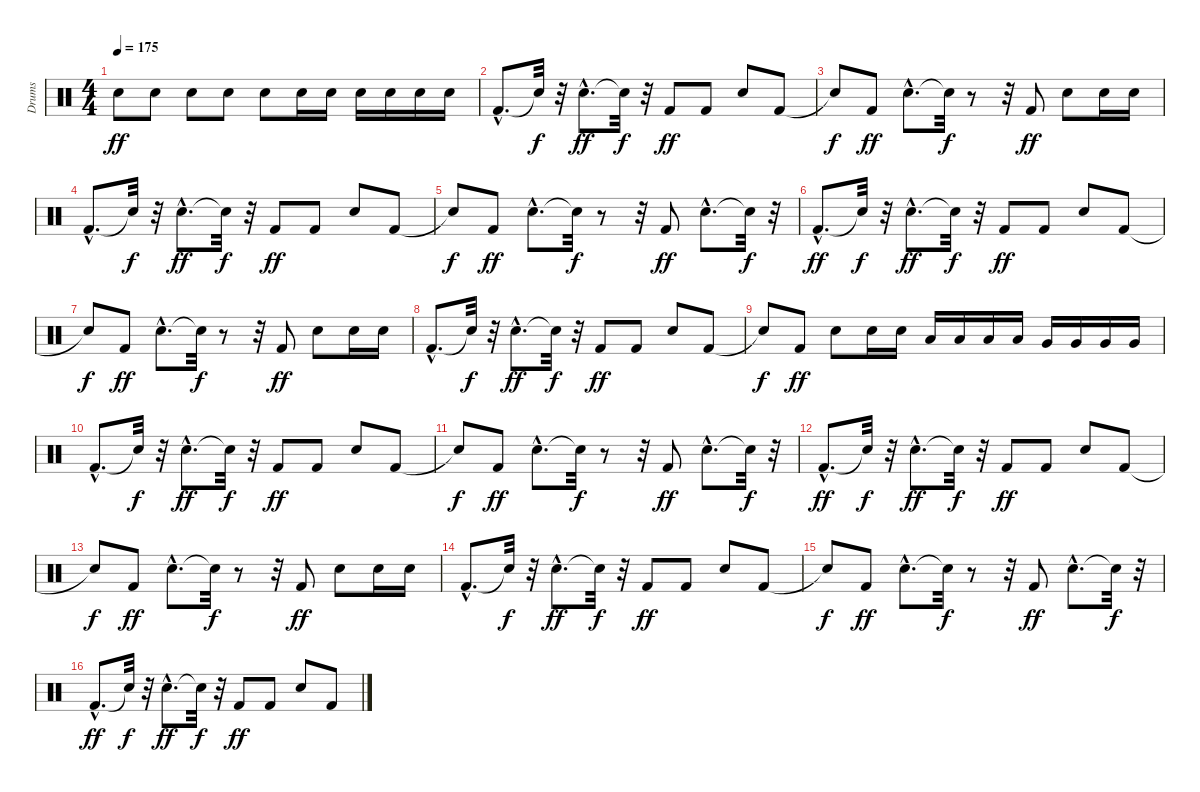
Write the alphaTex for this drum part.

\track ("Drums" "Drums") {instrument percussion}
\staff {score}
\articulation defaults
\ts (4 4)
\tempo 175
\clef neutral
\ks c "Electric Snare (hit)".8{dy ff} "Electric Snare (hit)".8 "Electric Snare (hit)".8 "Electric Snare (hit)".8 "Electric Snare (hit)".8 "Electric Snare (hit)".16 "Electric Snare (hit)".16 "Electric Snare (hit)".16 "Electric Snare (hit)".16 "Electric Snare (hit)".16 "Electric Snare (hit)".16
|
"Kick (hit) 2"{hac}.8{d} "Snare (hit)"{t}.32{dy f} r.32 "Electric Snare (hit)"{hac}.8{d dy ff} "Snare (hit)"{t}.32{dy f} r.32 "Kick (hit) 2".8{dy ff} "Kick (hit) 2".8 "Electric Snare (hit)".8 "Kick (hit) 2".8 |
"Snare (hit)"{t}.8{dy f} "Kick (hit) 2".8{dy ff} "Electric Snare (hit)"{hac}.8{d} "Snare (hit)"{t}.32{dy f} r.8 r.32 "Kick (hit) 2".8{dy ff} "Electric Snare (hit)".8 "Electric Snare (hit)".16 "Electric Snare (hit)".16 |
"Kick (hit) 2"{hac}.8{d} "Snare (hit)"{t}.32{dy f} r.32 "Electric Snare (hit)"{hac}.8{d dy ff} "Snare (hit)"{t}.32{dy f} r.32 "Kick (hit) 2".8{dy ff} "Kick (hit) 2".8 "Electric Snare (hit)".8 "Kick (hit) 2".8 |
"Snare (hit)"{t}.8{dy f} "Kick (hit) 2".8{dy ff} "Electric Snare (hit)"{hac}.8{d} "Snare (hit)"{t}.32{dy f} r.8 r.32 "Kick (hit) 2".8{dy ff} "Electric Snare (hit)"{hac}.8{d} "Snare (hit)"{t}.32{dy f} r.32 |
"Kick (hit) 2"{hac}.8{d dy ff} "Snare (hit)"{t}.32{dy f} r.32 "Electric Snare (hit)"{hac}.8{d dy ff} "Snare (hit)"{t}.32{dy f} r.32 "Kick (hit) 2".8{dy ff} "Kick (hit) 2".8 "Electric Snare (hit)".8 "Kick (hit) 2".8 |
"Snare (hit)"{t}.8{dy f} "Kick (hit) 2".8{dy ff} "Electric Snare (hit)"{hac}.8{d} "Snare (hit)"{t}.32{dy f} r.8 r.32 "Kick (hit) 2".8{dy ff} "Electric Snare (hit)".8 "Electric Snare (hit)".16 "Electric Snare (hit)".16 |
"Kick (hit) 2"{hac}.8{d} "Snare (hit)"{t}.32{dy f} r.32 "Electric Snare (hit)"{hac}.8{d dy ff} "Snare (hit)"{t}.32{dy f} r.32 "Kick (hit) 2".8{dy ff} "Kick (hit) 2".8 "Electric Snare (hit)".8 "Kick (hit) 2".8 |
"Snare (hit)"{t}.8{dy f} "Kick (hit) 2".8{dy ff} "Electric Snare (hit)".8 "Electric Snare (hit)".16 "Electric Snare (hit)".16 "Low Tom (hit)".16 "Low Tom (hit)".16 "Low Tom (hit)".16 "Low Tom (hit)".16 "Very Low Tom (hit)".16 "Very Low Tom (hit)".16 "Very Low Tom (hit)".16 "Very Low Tom (hit)".16 |
"Kick (hit) 2"{hac}.8{d} "Snare (hit)"{t}.32{dy f} r.32 "Electric Snare (hit)"{hac}.8{d dy ff} "Snare (hit)"{t}.32{dy f} r.32 "Kick (hit) 2".8{dy ff} "Kick (hit) 2".8 "Electric Snare (hit)".8 "Kick (hit) 2".8 |
"Snare (hit)"{t}.8{dy f} "Kick (hit) 2".8{dy ff} "Electric Snare (hit)"{hac}.8{d} "Snare (hit)"{t}.32{dy f} r.8 r.32 "Kick (hit) 2".8{dy ff} "Electric Snare (hit)"{hac}.8{d} "Snare (hit)"{t}.32{dy f} r.32 |
"Kick (hit) 2"{hac}.8{d dy ff} "Snare (hit)"{t}.32{dy f} r.32 "Electric Snare (hit)"{hac}.8{d dy ff} "Snare (hit)"{t}.32{dy f} r.32 "Kick (hit) 2".8{dy ff} "Kick (hit) 2".8 "Electric Snare (hit)".8 "Kick (hit) 2".8 |
"Snare (hit)"{t}.8{dy f} "Kick (hit) 2".8{dy ff} "Electric Snare (hit)"{hac}.8{d} "Snare (hit)"{t}.32{dy f} r.8 r.32 "Kick (hit) 2".8{dy ff} "Electric Snare (hit)".8 "Electric Snare (hit)".16 "Electric Snare (hit)".16 |
"Kick (hit) 2"{hac}.8{d} "Snare (hit)"{t}.32{dy f} r.32 "Electric Snare (hit)"{hac}.8{d dy ff} "Snare (hit)"{t}.32{dy f} r.32 "Kick (hit) 2".8{dy ff} "Kick (hit) 2".8 "Electric Snare (hit)".8 "Kick (hit) 2".8 |
"Snare (hit)"{t}.8{dy f} "Kick (hit) 2".8{dy ff} "Electric Snare (hit)"{hac}.8{d} "Snare (hit)"{t}.32{dy f} r.8 r.32 "Kick (hit) 2".8{dy ff} "Electric Snare (hit)"{hac}.8{d} "Snare (hit)"{t}.32{dy f} r.32 |
"Kick (hit) 2"{hac}.8{d dy ff} "Snare (hit)"{t}.32{dy f} r.32 "Electric Snare (hit)"{hac}.8{d dy ff} "Snare (hit)"{t}.32{dy f} r.32 "Kick (hit) 2".8{dy ff} "Kick (hit) 2".8 "Electric Snare (hit)".8 "Kick (hit) 2".8
